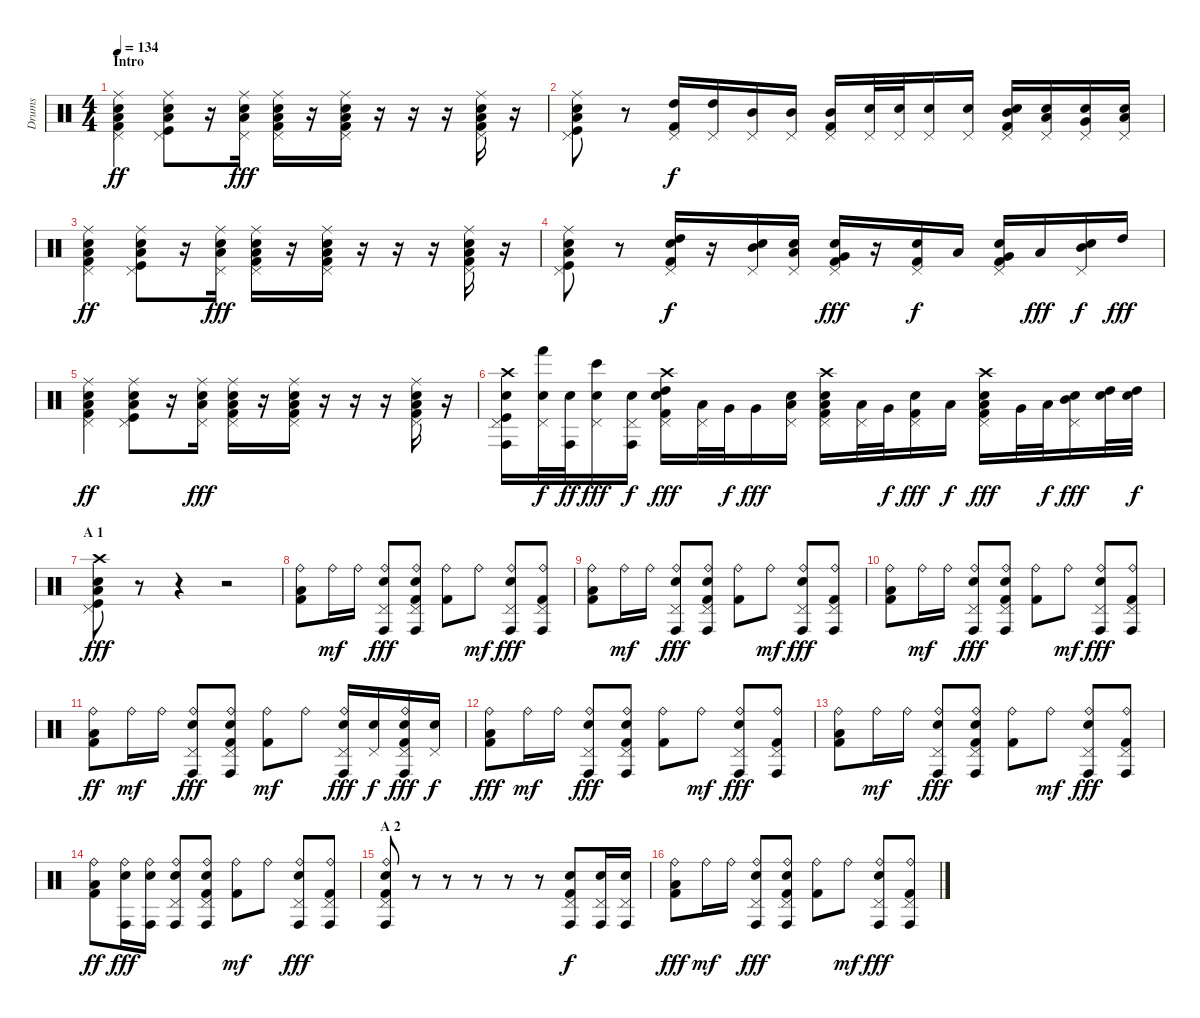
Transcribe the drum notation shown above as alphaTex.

\track ("Drums" "Drums") {instrument percussion}
\staff {score}
\articulation defaults
\ts (4 4)
\section ("" "Intro")
\tempo 134
\clef neutral
\ks c
("Ride (middle)" "Pedal Hi-Hat (hit)" "Low Floor Tom (hit)" "Electric Snare (hit)" "Kick (hit) 2").4{dy ff} ("Ride (middle)" "Pedal Hi-Hat (hit)" "Low Floor Tom (hit)" "Electric Snare (hit)" "Kick (hit)").8 r.16 ("Ride (middle)" "Pedal Hi-Hat (hit)" "Low Floor Tom (hit)" "Electric Snare (hit)").16{dy fff} ("Ride (middle)" "Pedal Hi-Hat (hit)" "Low Floor Tom (hit)" "Electric Snare (hit)" "Kick (hit) 2").16 r.16 ("Ride (middle)" "Pedal Hi-Hat (hit)" "Low Floor Tom (hit)" "Electric Snare (hit)" "Kick (hit) 2").16 r.16 r.16 r.16 ("Ride (middle)" "Pedal Hi-Hat (hit)" "Low Floor Tom (hit)" "Electric Snare (hit)" "Kick (hit) 2").16 r.16 |
("Ride (middle)" "Pedal Hi-Hat (hit)" "Low Floor Tom (hit)" "Electric Snare (hit)" "Kick (hit)").8 r.8 ("Pedal Hi-Hat (hit)" "High Tom (hit)" "Kick (hit) 2").16{dy f} ("Pedal Hi-Hat (hit)" "High Tom (hit)").16 ("Pedal Hi-Hat (hit)" "Mid Tom (hit)").16 ("Pedal Hi-Hat (hit)" "Mid Tom (hit)").16 ("Pedal Hi-Hat (hit)" "Mid Tom (hit)" "Kick (hit) 2").16 ("Pedal Hi-Hat (hit)" "Snare (hit) 2").32 ("Pedal Hi-Hat (hit)" "Electric Snare (hit)").32 ("Pedal Hi-Hat (hit)" "Snare (hit) 2").16 ("Pedal Hi-Hat (hit)" "Snare (hit) 2").16 ("Pedal Hi-Hat (hit)" "Mid Tom (hit)" "Electric Snare (hit)" "Kick (hit) 2").16 ("Pedal Hi-Hat (hit)" "Low Tom (hit)" "Electric Snare (hit)").16 ("Pedal Hi-Hat (hit)" "Very Low Tom (hit)" "Electric Snare (hit)").16 ("Pedal Hi-Hat (hit)" "Low Floor Tom (hit)" "Electric Snare (hit)").16 |
("Ride (middle)" "Pedal Hi-Hat (hit)" "Low Floor Tom (hit)" "Electric Snare (hit)" "Kick (hit) 2").4{dy ff} ("Ride (middle)" "Pedal Hi-Hat (hit)" "Low Floor Tom (hit)" "Electric Snare (hit)" "Kick (hit)").8 r.16 ("Ride (middle)" "Pedal Hi-Hat (hit)" "Low Floor Tom (hit)" "Electric Snare (hit)").16{dy fff} ("Ride (middle)" "Pedal Hi-Hat (hit)" "Low Floor Tom (hit)" "Electric Snare (hit)" "Kick (hit) 2").16 r.16 ("Ride (middle)" "Pedal Hi-Hat (hit)" "Low Floor Tom (hit)" "Electric Snare (hit)" "Kick (hit) 2").16 r.16 r.16 r.16 ("Ride (middle)" "Pedal Hi-Hat (hit)" "Low Floor Tom (hit)" "Electric Snare (hit)" "Kick (hit) 2").16 r.16 |
("Ride (middle)" "Pedal Hi-Hat (hit)" "Low Floor Tom (hit)" "Electric Snare (hit)" "Kick (hit)").8 r.8 ("Pedal Hi-Hat (hit)" "High Tom (hit)" "Electric Snare (hit)" "Kick (hit) 2").16{dy f} r.16 ("Pedal Hi-Hat (hit)" "Mid Tom (hit)" "Snare (hit) 2").16 ("Pedal Hi-Hat (hit)" "Low Tom (hit)" "Electric Snare (hit)").16 ("Pedal Hi-Hat (hit)" "Very Low Tom (hit)" "Snare (hit) 2" "Kick (hit) 2").16{dy fff} r.16 ("Pedal Hi-Hat (hit)" "Kick (hit) 2" "Electric Snare (hit)").16{dy f} "Low Floor Tom (hit)".16 ("Pedal Hi-Hat (hit)" "Very Low Tom (hit)" "Electric Snare (hit)" "Kick (hit) 2").16 "Low Tom (hit)".16{dy fff} ("Pedal Hi-Hat (hit)" "Mid Tom (hit)" "Snare (hit) 2").16{dy f} "High Tom (hit)".16{dy fff} |
("Ride (middle)" "Pedal Hi-Hat (hit)" "Low Floor Tom (hit)" "Electric Snare (hit)" "Kick (hit) 2").4{dy ff} ("Ride (middle)" "Pedal Hi-Hat (hit)" "Low Floor Tom (hit)" "Electric Snare (hit)" "Kick (hit)").8 r.16 ("Ride (middle)" "Pedal Hi-Hat (hit)" "Low Floor Tom (hit)" "Electric Snare (hit)").16{dy fff} ("Ride (middle)" "Pedal Hi-Hat (hit)" "Low Floor Tom (hit)" "Electric Snare (hit)" "Kick (hit) 2").16 r.16 ("Ride (middle)" "Pedal Hi-Hat (hit)" "Low Floor Tom (hit)" "Electric Snare (hit)" "Kick (hit) 2").16 r.16 r.16 r.16 ("Ride (middle)" "Pedal Hi-Hat (hit)" "Low Floor Tom (hit)" "Electric Snare (hit)" "Kick (hit) 2").16 r.16 |
("Crash high (hit)" "Pedal Hi-Hat (hit)" "Conga high (hit)" "Snare (hit) 2" "Kick (hit)").16 ("Pedal Hi-Hat (hit)" "Hand (hit)" "Electric Snare (hit)").32{dy f} ("Conga high (hit)" "Electric Snare (hit)").32{dy ff} ("Pedal Hi-Hat (hit)" "Bongo High (hit)" "Electric Snare (hit)").16{dy fff} ("Pedal Hi-Hat (hit)" "Conga high (hit)" "Electric Snare (hit)").16{dy f} ("Crash high (hit)" "Pedal Hi-Hat (hit)" "High Tom (hit)" "Snare (hit) 2" "Kick (hit) 2").16{dy fff} ("Pedal Hi-Hat (hit)" "Low Tom (hit)").32 "Very Low Tom (hit)".32{dy f} "Very Low Tom (hit)".16{dy fff} ("Pedal Hi-Hat (hit)" "Low Floor Tom (hit)" "Electric Snare (hit)").16 ("Crash high (hit)" "Pedal Hi-Hat (hit)" "Low Floor Tom (hit)" "Snare (hit) 2" "Kick (hit) 2").16 ("Pedal Hi-Hat (hit)" "Low Tom (hit)").32 "Very Low Tom (hit)".32{dy f} ("Pedal Hi-Hat (hit)" "Kick (hit) 2" "Electric Snare (hit)").16{dy fff} "Low Floor Tom (hit)".16{dy f} ("Crash high (hit)" "Pedal Hi-Hat (hit)" "Low Floor Tom (hit)" "Snare (hit) 2" "Kick (hit) 2").16{dy fff} "Very Low Tom (hit)".32 "Low Tom (hit)".32{dy f} ("Pedal Hi-Hat (hit)" "Mid Tom (hit)" "Electric Snare (hit)").16{dy fff} ("High Tom (hit)" "Electric Snare (hit)").32 ("High Tom (hit)" "Electric Snare (hit)").32{dy f} |
\section ("" "A 1")
("Crash high (hit)" "Pedal Hi-Hat (hit)" "Low Floor Tom (hit)" "Electric Snare (hit)" "Kick (hit)").8{dy fff} r.8 r.4 r.2 |
("Ride (bell)" "Low Tom (hit)" "Kick (hit) 2").8 "Ride (bell)".16{dy mf} "Ride (bell)".16 ("Ride (bell)" "Pedal Hi-Hat (hit)" "Conga high (hit)" "Electric Snare (hit)").8{dy fff} ("Ride (bell)" "Pedal Hi-Hat (hit)" "Conga high (hit)" "Electric Snare (hit)" "Kick (hit) 2").8 ("Ride (bell)" "Kick (hit) 2").8 "Ride (bell)".8{dy mf} ("Ride (bell)" "Pedal Hi-Hat (hit)" "Conga high (hit)" "Electric Snare (hit)").8{dy fff} ("Ride (bell)" "Pedal Hi-Hat (hit)" "Conga high (hit)" "Kick (hit) 2").8 |
("Ride (bell)" "Low Tom (hit)" "Kick (hit) 2").8 "Ride (bell)".16{dy mf} "Ride (bell)".16 ("Ride (bell)" "Pedal Hi-Hat (hit)" "Conga high (hit)" "Electric Snare (hit)").8{dy fff} ("Ride (bell)" "Pedal Hi-Hat (hit)" "Conga high (hit)" "Electric Snare (hit)" "Kick (hit) 2").8 ("Ride (bell)" "Kick (hit) 2").8 "Ride (bell)".8{dy mf} ("Ride (bell)" "Pedal Hi-Hat (hit)" "Conga high (hit)" "Electric Snare (hit)").8{dy fff} ("Ride (bell)" "Pedal Hi-Hat (hit)" "Conga high (hit)" "Kick (hit) 2").8 |
("Ride (bell)" "Low Tom (hit)" "Kick (hit) 2").8 "Ride (bell)".16{dy mf} "Ride (bell)".16 ("Ride (bell)" "Pedal Hi-Hat (hit)" "Conga high (hit)" "Electric Snare (hit)").8{dy fff} ("Ride (bell)" "Pedal Hi-Hat (hit)" "Conga high (hit)" "Electric Snare (hit)" "Kick (hit) 2").8 ("Ride (bell)" "Kick (hit) 2").8 "Ride (bell)".8{dy mf} ("Ride (bell)" "Pedal Hi-Hat (hit)" "Conga high (hit)" "Electric Snare (hit)").8{dy fff} ("Ride (bell)" "Pedal Hi-Hat (hit)" "Conga high (hit)" "Kick (hit) 2").8 |
("Ride (bell)" "Low Tom (hit)" "Kick (hit) 2").8{dy ff} "Ride (bell)".16{dy mf} "Ride (bell)".16 ("Ride (bell)" "Pedal Hi-Hat (hit)" "Conga high (hit)" "Electric Snare (hit)").8{dy fff} ("Ride (bell)" "Pedal Hi-Hat (hit)" "Conga high (hit)" "Electric Snare (hit)" "Kick (hit) 2").8 ("Ride (bell)" "Kick (hit) 2").8{dy mf} "Ride (bell)".8 ("Ride (bell)" "Pedal Hi-Hat (hit)" "Conga high (hit)" "Electric Snare (hit)").16{dy fff} ("Pedal Hi-Hat (hit)" "Electric Snare (hit)").16{dy f} ("Ride (bell)" "Pedal Hi-Hat (hit)" "Conga high (hit)" "Electric Snare (hit)" "Kick (hit) 2").16{dy fff} ("Pedal Hi-Hat (hit)" "Electric Snare (hit)").16{dy f} |
("Ride (bell)" "Low Tom (hit)" "Kick (hit) 2").8{dy fff} "Ride (bell)".16{dy mf} "Ride (bell)".16 ("Ride (bell)" "Pedal Hi-Hat (hit)" "Conga high (hit)" "Electric Snare (hit)").8{dy fff} ("Ride (bell)" "Pedal Hi-Hat (hit)" "Conga high (hit)" "Electric Snare (hit)" "Kick (hit) 2").8 ("Ride (bell)" "Kick (hit) 2").8 "Ride (bell)".8{dy mf} ("Ride (bell)" "Pedal Hi-Hat (hit)" "Conga high (hit)" "Electric Snare (hit)").8{dy fff} ("Ride (bell)" "Pedal Hi-Hat (hit)" "Conga high (hit)" "Kick (hit) 2").8 |
("Ride (bell)" "Low Tom (hit)" "Kick (hit) 2").8 "Ride (bell)".16{dy mf} "Ride (bell)".16 ("Ride (bell)" "Pedal Hi-Hat (hit)" "Conga high (hit)" "Electric Snare (hit)").8{dy fff} ("Ride (bell)" "Pedal Hi-Hat (hit)" "Conga high (hit)" "Electric Snare (hit)" "Kick (hit) 2").8 ("Ride (bell)" "Kick (hit) 2").8 "Ride (bell)".8{dy mf} ("Ride (bell)" "Pedal Hi-Hat (hit)" "Conga high (hit)" "Electric Snare (hit)").8{dy fff} ("Ride (bell)" "Pedal Hi-Hat (hit)" "Conga high (hit)" "Kick (hit) 2").8 |
("Ride (bell)" "Low Tom (hit)" "Kick (hit) 2").8{dy ff} ("Ride (bell)" "Conga high (hit)" "Electric Snare (hit)").16{dy fff} ("Ride (bell)" "Conga high (hit)" "Electric Snare (hit)").16 ("Ride (bell)" "Pedal Hi-Hat (hit)" "Conga high (hit)" "Electric Snare (hit)").8 ("Ride (bell)" "Pedal Hi-Hat (hit)" "Conga high (hit)" "Electric Snare (hit)" "Kick (hit) 2").8 ("Ride (bell)" "Kick (hit) 2").8{dy mf} "Ride (bell)".8 ("Ride (bell)" "Pedal Hi-Hat (hit)" "Conga high (hit)" "Electric Snare (hit)").8{dy fff} ("Ride (bell)" "Pedal Hi-Hat (hit)" "Conga high (hit)" "Kick (hit) 2").8 |
\section ("" "A 2")
("Ride (bell)" "Pedal Hi-Hat (hit)" "Conga high (hit)" "Electric Snare (hit)" "Kick (hit) 2").8 r.8 r.8 r.8 r.8 r.8 ("Pedal Hi-Hat (hit)" "Conga high (hit)" "Electric Snare (hit)" "Kick (hit) 2").8{dy f} ("Pedal Hi-Hat (hit)" "Conga high (hit)" "Electric Snare (hit)").16 ("Pedal Hi-Hat (hit)" "Conga high (hit)" "Electric Snare (hit)").16 |
("Ride (bell)" "Low Tom (hit)" "Kick (hit) 2").8{dy fff} "Ride (bell)".16{dy mf} "Ride (bell)".16 ("Ride (bell)" "Pedal Hi-Hat (hit)" "Conga high (hit)" "Electric Snare (hit)").8{dy fff} ("Ride (bell)" "Pedal Hi-Hat (hit)" "Conga high (hit)" "Electric Snare (hit)" "Kick (hit) 2").8 ("Ride (bell)" "Kick (hit) 2").8 "Ride (bell)".8{dy mf} ("Ride (bell)" "Pedal Hi-Hat (hit)" "Conga high (hit)" "Electric Snare (hit)").8{dy fff} ("Ride (bell)" "Pedal Hi-Hat (hit)" "Conga high (hit)" "Kick (hit) 2").8
